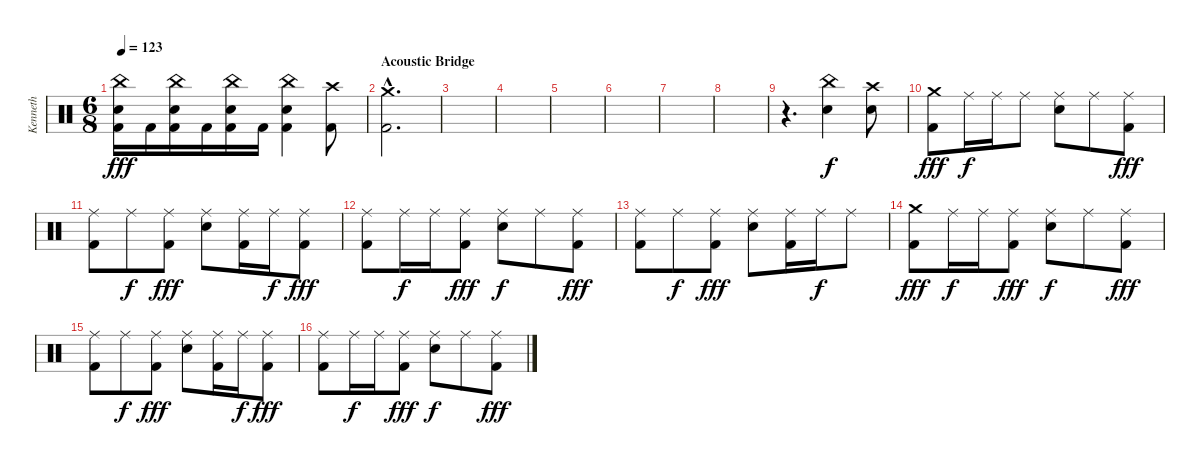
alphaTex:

\track ("Kenneth" "Kenneth") {instrument percussion}
\staff {score}
\articulation defaults
\ts (6 8)
\tempo 123
\clef neutral
\ks c
("China (hit)" "Snare (hit) 2" "Kick (hit) 2").16{dy fff} "Kick (hit) 2".16 ("China (hit)" "Snare (hit) 2" "Kick (hit) 2").16 "Kick (hit) 2".16 ("China (hit)" "Snare (hit) 2" "Kick (hit) 2").16 "Kick (hit) 2".16 ("China (hit)" "Snare (hit) 2" "Kick (hit) 2").4 ("Crash high (hit)" "Kick (hit) 2").8 |
\section ("" "Acoustic Bridge")
("Crash medium (hit)"{hac} "Kick (hit) 2"{hac}).2{d} |
|
|
|
|
|
|
r.4{d} ("China (hit)" "Snare (hit) 2").4{dy f} ("Crash high (hit)" "Snare (hit) 2").8 |
("Crash medium (hit)" "Kick (hit) 2").8{dy fff} "Ride (middle)".16{dy f} "Ride (middle)".16 "Ride (middle)".8 ("Ride (middle)" "Snare (hit) 2").8 "Ride (middle)".8 ("Ride (middle)" "Kick (hit) 2").8{dy fff} |
("Ride (middle)" "Kick (hit) 2").8 "Ride (middle)".8{dy f} ("Ride (middle)" "Kick (hit) 2").8{dy fff} ("Ride (middle)" "Snare (hit) 2").8 ("Ride (middle)" "Kick (hit) 2").16 "Ride (middle)".16{dy f} ("Ride (middle)" "Kick (hit) 2").8{dy fff} |
("Ride (middle)" "Kick (hit) 2").8 "Ride (middle)".16{dy f} "Ride (middle)".16 ("Ride (middle)" "Kick (hit) 2").8{dy fff} ("Ride (middle)" "Snare (hit) 2").8{dy f} "Ride (middle)".8 ("Ride (middle)" "Kick (hit) 2").8{dy fff} |
("Ride (middle)" "Kick (hit) 2").8 "Ride (middle)".8{dy f} ("Ride (middle)" "Kick (hit) 2").8{dy fff} ("Ride (middle)" "Snare (hit) 2").8 ("Ride (middle)" "Kick (hit) 2").16 "Ride (middle)".16{dy f} "Ride (middle)".8 |
("Crash medium (hit)" "Kick (hit) 2").8{dy fff} "Ride (middle)".16{dy f} "Ride (middle)".16 ("Ride (middle)" "Kick (hit) 2").8{dy fff} ("Ride (middle)" "Snare (hit) 2").8{dy f} "Ride (middle)".8 ("Ride (middle)" "Kick (hit) 2").8{dy fff} |
("Ride (middle)" "Kick (hit) 2").8 "Ride (middle)".8{dy f} ("Ride (middle)" "Kick (hit) 2").8{dy fff} ("Ride (middle)" "Snare (hit) 2").8 ("Ride (middle)" "Kick (hit) 2").16 "Ride (middle)".16{dy f} ("Ride (middle)" "Kick (hit) 2").8{dy fff} |
("Ride (middle)" "Kick (hit) 2").8 "Ride (middle)".16{dy f} "Ride (middle)".16 ("Ride (middle)" "Kick (hit) 2").8{dy fff} ("Ride (middle)" "Snare (hit) 2").8{dy f} "Ride (middle)".8 ("Ride (middle)" "Kick (hit) 2").8{dy fff}
